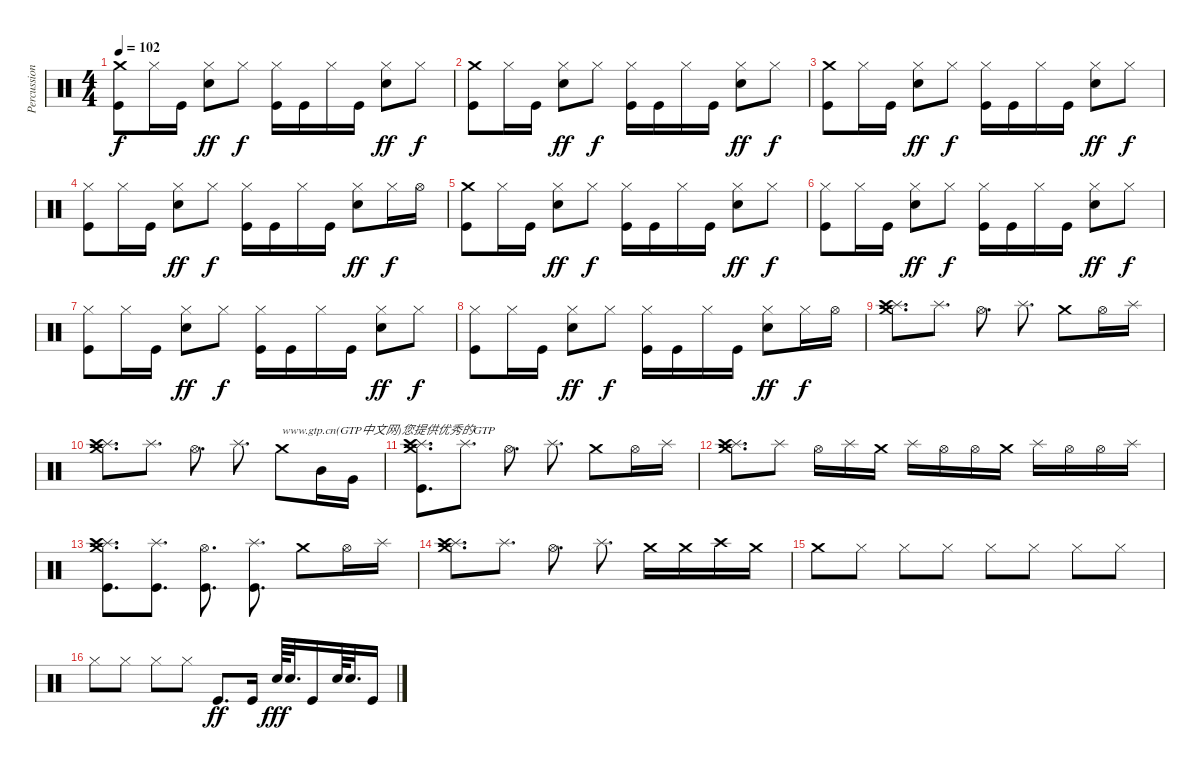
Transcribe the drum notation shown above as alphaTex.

\track ("Percussion" "Percussion") {instrument percussion}
\staff {score}
\articulation defaults
\ts (4 4)
\tempo 102
\clef neutral
\ks c
("Crash medium (hit)" "Kick (hit)").8{dy f} "Hi-Hat (closed)".16 "Kick (hit)".16 ("Hi-Hat (closed)" "Snare (hit) 2").8{dy ff} "Hi-Hat (closed)".8{dy f} ("Hi-Hat (closed)" "Kick (hit)").16 "Kick (hit)".16 "Hi-Hat (closed)".16 "Kick (hit)".16 ("Hi-Hat (closed)" "Snare (hit) 2").8{dy ff} "Hi-Hat (closed)".8{dy f} |
("Crash medium (hit)" "Kick (hit)").8 "Hi-Hat (closed)".16 "Kick (hit)".16 ("Hi-Hat (closed)" "Snare (hit) 2").8{dy ff} "Hi-Hat (closed)".8{dy f} ("Hi-Hat (closed)" "Kick (hit)").16 "Kick (hit)".16 "Hi-Hat (closed)".16 "Kick (hit)".16 ("Hi-Hat (closed)" "Snare (hit) 2").8{dy ff} "Hi-Hat (closed)".8{dy f} |
("Crash medium (hit)" "Kick (hit)").8 "Hi-Hat (closed)".16 "Kick (hit)".16 ("Hi-Hat (closed)" "Snare (hit) 2").8{dy ff} "Hi-Hat (closed)".8{dy f} ("Hi-Hat (closed)" "Kick (hit)").16 "Kick (hit)".16 "Hi-Hat (closed)".16 "Kick (hit)".16 ("Hi-Hat (closed)" "Snare (hit) 2").8{dy ff} "Hi-Hat (closed)".8{dy f} |
("Hi-Hat (closed)" "Kick (hit)").8 "Hi-Hat (closed)".16 "Kick (hit)".16 ("Hi-Hat (closed)" "Snare (hit) 2").8{dy ff} "Hi-Hat (closed)".8{dy f} ("Hi-Hat (closed)" "Kick (hit)").16 "Kick (hit)".16 "Hi-Hat (closed)".16 "Kick (hit)".16 ("Hi-Hat (closed)" "Snare (hit) 2").8{dy ff} "Hi-Hat (closed)".16{dy f} "Hi-Hat (open)".16 |
("Crash medium (hit)" "Kick (hit)").8 "Hi-Hat (closed)".16 "Kick (hit)".16 ("Hi-Hat (closed)" "Snare (hit) 2").8{dy ff} "Hi-Hat (closed)".8{dy f} ("Hi-Hat (closed)" "Kick (hit)").16 "Kick (hit)".16 "Hi-Hat (closed)".16 "Kick (hit)".16 ("Hi-Hat (closed)" "Snare (hit) 2").8{dy ff} "Hi-Hat (closed)".8{dy f} |
("Hi-Hat (closed)" "Kick (hit)").8 "Hi-Hat (closed)".16 "Kick (hit)".16 ("Hi-Hat (closed)" "Snare (hit) 2").8{dy ff} "Hi-Hat (closed)".8{dy f} ("Hi-Hat (closed)" "Kick (hit)").16 "Kick (hit)".16 "Hi-Hat (closed)".16 "Kick (hit)".16 ("Hi-Hat (closed)" "Snare (hit) 2").8{dy ff} "Hi-Hat (closed)".8{dy f} |
("Hi-Hat (closed)" "Kick (hit)").8 "Hi-Hat (closed)".16 "Kick (hit)".16 ("Hi-Hat (closed)" "Snare (hit) 2").8{dy ff} "Hi-Hat (closed)".8{dy f} ("Hi-Hat (closed)" "Kick (hit)").16 "Kick (hit)".16 "Hi-Hat (closed)".16 "Kick (hit)".16 ("Hi-Hat (closed)" "Snare (hit) 2").8{dy ff} "Hi-Hat (closed)".8{dy f} |
("Hi-Hat (closed)" "Kick (hit)").8 "Hi-Hat (closed)".16 "Kick (hit)".16 ("Hi-Hat (closed)" "Snare (hit) 2").8{dy ff} "Hi-Hat (closed)".8{dy f} ("Hi-Hat (closed)" "Kick (hit)").16 "Kick (hit)".16 "Hi-Hat (closed)".16 "Kick (hit)".16 ("Hi-Hat (closed)" "Snare (hit) 2").8{dy ff} "Hi-Hat (closed)".16{dy f} "Hi-Hat (open)".16 |
("Splash (hit)" "Crash medium (hit)" "Crash high (hit)").8{d} "Splash (hit)".8{d} "Hi-Hat (open)".8{d} "Splash (hit)".8{d} "Crash medium (hit)".8 "Hi-Hat (open)".16 "Splash (hit)".16 |
("Splash (hit)" "Crash medium (hit)" "Crash high (hit)").8{d} "Splash (hit)".8{d} "Hi-Hat (open)".8{d} "Splash (hit)".8{d} "Crash medium (hit)".8{txt "www.gtp.cn(GTP中文网)您提供优秀的GTP"} "Mid Tom (hit)".16 "Very Low Tom (hit)".16 |
("Splash (hit)" "Crash medium (hit)" "Crash high (hit)" "Kick (hit)").8{d} "Splash (hit)".8{d} "Hi-Hat (open)".8{d} "Splash (hit)".8{d} "Crash medium (hit)".8 "Hi-Hat (open)".16 "Splash (hit)".16 |
("Splash (hit)" "Crash medium (hit)" "Crash high (hit)").8{d} "Splash (hit)".8 "Hi-Hat (open)".16 "Splash (hit)".16 "Crash medium (hit)".16 "Splash (hit)".16 "Hi-Hat (open)".16 "Hi-Hat (open)".16 "Crash medium (hit)".16 "Splash (hit)".16 "Hi-Hat (open)".16 "Hi-Hat (open)".16 "Splash (hit)".16 |
("Splash (hit)" "Crash medium (hit)" "Crash high (hit)" "Kick (hit)").8{d} ("Splash (hit)" "Kick (hit)").8{d} ("Hi-Hat (open)" "Kick (hit)").8{d} ("Splash (hit)" "Kick (hit)").8{d} "Crash medium (hit)".8 "Hi-Hat (open)".16 "Splash (hit)".16 |
("Splash (hit)" "Crash medium (hit)" "Crash high (hit)").8{d} "Splash (hit)".8{d} "Hi-Hat (open)".8{d} "Splash (hit)".8{d} "Crash medium (hit)".16 "Crash medium (hit)".16 "Crash high (hit)".16 "Crash medium (hit)".16 |
"Crash medium (hit)".8 "Hi-Hat (closed)".8 "Hi-Hat (closed)".8 "Hi-Hat (closed)".8 "Hi-Hat (closed)".8 "Hi-Hat (closed)".8 "Hi-Hat (closed)".8 "Hi-Hat (closed)".8 |
"Hi-Hat (closed)".8 "Hi-Hat (closed)".8 "Hi-Hat (closed)".8 "Hi-Hat (closed)".8 "Kick (hit)".8{d dy ff} "Kick (hit)".16 "Snare (hit) 2".64{dy fff} "Snare (hit) 2".32{d} "Kick (hit)".16 "Snare (hit) 2".64 "Snare (hit) 2".32{d} "Kick (hit)".16
